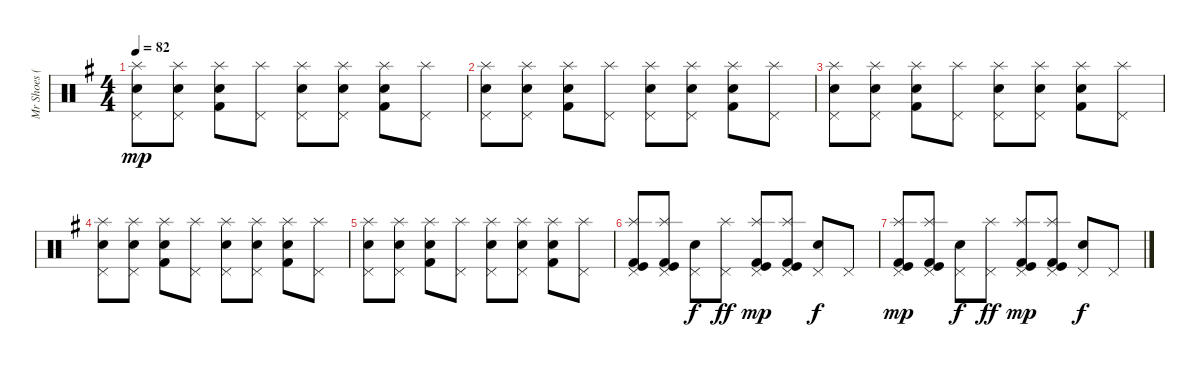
\track ("Mr Shoes (batterie)" "Mr Shoes (") {instrument percussion}
\staff {score}
\articulation defaults
\ts (4 4)
\tempo 82
\clef neutral
\ks g
("Electric Snare (hit)" "Pedal Hi-Hat (hit)" "Splash (hit)").8{dy mp} ("Electric Snare (hit)" "Pedal Hi-Hat (hit)" "Splash (hit)").8 ("Kick (hit) 2" "Snare (hit) 2" "Splash (hit)").8 ("Pedal Hi-Hat (hit)" "Splash (hit)").8 ("Electric Snare (hit)" "Pedal Hi-Hat (hit)" "Splash (hit)").8 ("Electric Snare (hit)" "Pedal Hi-Hat (hit)" "Splash (hit)").8 ("Kick (hit) 2" "Snare (hit) 2" "Splash (hit)").8 ("Pedal Hi-Hat (hit)" "Splash (hit)").8 |
("Electric Snare (hit)" "Pedal Hi-Hat (hit)" "Splash (hit)").8 ("Electric Snare (hit)" "Pedal Hi-Hat (hit)" "Splash (hit)").8 ("Kick (hit) 2" "Snare (hit) 2" "Splash (hit)").8 ("Pedal Hi-Hat (hit)" "Splash (hit)").8 ("Electric Snare (hit)" "Pedal Hi-Hat (hit)" "Splash (hit)").8 ("Electric Snare (hit)" "Pedal Hi-Hat (hit)" "Splash (hit)").8 ("Kick (hit) 2" "Snare (hit) 2" "Splash (hit)").8 ("Pedal Hi-Hat (hit)" "Splash (hit)").8 |
("Electric Snare (hit)" "Pedal Hi-Hat (hit)" "Splash (hit)").8 ("Electric Snare (hit)" "Pedal Hi-Hat (hit)" "Splash (hit)").8 ("Kick (hit) 2" "Snare (hit) 2" "Splash (hit)").8 ("Pedal Hi-Hat (hit)" "Splash (hit)").8 ("Electric Snare (hit)" "Pedal Hi-Hat (hit)" "Splash (hit)").8 ("Electric Snare (hit)" "Pedal Hi-Hat (hit)" "Splash (hit)").8 ("Kick (hit) 2" "Snare (hit) 2" "Splash (hit)").8 ("Pedal Hi-Hat (hit)" "Splash (hit)").8 |
("Electric Snare (hit)" "Pedal Hi-Hat (hit)" "Splash (hit)").8 ("Electric Snare (hit)" "Pedal Hi-Hat (hit)" "Splash (hit)").8 ("Kick (hit) 2" "Snare (hit) 2" "Splash (hit)").8 ("Pedal Hi-Hat (hit)" "Splash (hit)").8 ("Electric Snare (hit)" "Pedal Hi-Hat (hit)" "Splash (hit)").8 ("Electric Snare (hit)" "Pedal Hi-Hat (hit)" "Splash (hit)").8 ("Kick (hit) 2" "Snare (hit) 2" "Splash (hit)").8 ("Pedal Hi-Hat (hit)" "Splash (hit)").8 |
("Electric Snare (hit)" "Pedal Hi-Hat (hit)" "Splash (hit)").8 ("Electric Snare (hit)" "Pedal Hi-Hat (hit)" "Splash (hit)").8 ("Kick (hit) 2" "Snare (hit) 2" "Splash (hit)").8 ("Pedal Hi-Hat (hit)" "Splash (hit)").8 ("Electric Snare (hit)" "Pedal Hi-Hat (hit)" "Splash (hit)").8 ("Electric Snare (hit)" "Pedal Hi-Hat (hit)" "Splash (hit)").8 ("Kick (hit) 2" "Snare (hit) 2" "Splash (hit)").8 ("Pedal Hi-Hat (hit)" "Splash (hit)").8 |
("Kick (hit) 2" "Pedal Hi-Hat (hit)" "Kick (hit)" "Splash (hit)").8 ("Kick (hit) 2" "Pedal Hi-Hat (hit)" "Kick (hit)" "Splash (hit)").8 ("Electric Snare (hit)" "Pedal Hi-Hat (hit)").8{dy f} ("Splash (hit)" "Pedal Hi-Hat (hit)").8{dy ff} ("Kick (hit) 2" "Pedal Hi-Hat (hit)" "Kick (hit)" "Splash (hit)").8{dy mp} ("Kick (hit) 2" "Pedal Hi-Hat (hit)" "Kick (hit)" "Splash (hit)").8 ("Electric Snare (hit)" "Pedal Hi-Hat (hit)").8{dy f} "Pedal Hi-Hat (hit)".8 |
("Kick (hit) 2" "Pedal Hi-Hat (hit)" "Kick (hit)" "Splash (hit)").8{dy mp} ("Kick (hit) 2" "Pedal Hi-Hat (hit)" "Kick (hit)" "Splash (hit)").8 ("Electric Snare (hit)" "Pedal Hi-Hat (hit)").8{dy f} ("Splash (hit)" "Pedal Hi-Hat (hit)").8{dy ff} ("Kick (hit) 2" "Pedal Hi-Hat (hit)" "Kick (hit)" "Splash (hit)").8{dy mp} ("Kick (hit) 2" "Pedal Hi-Hat (hit)" "Kick (hit)" "Splash (hit)").8 ("Electric Snare (hit)" "Pedal Hi-Hat (hit)").8{dy f} "Pedal Hi-Hat (hit)".8
